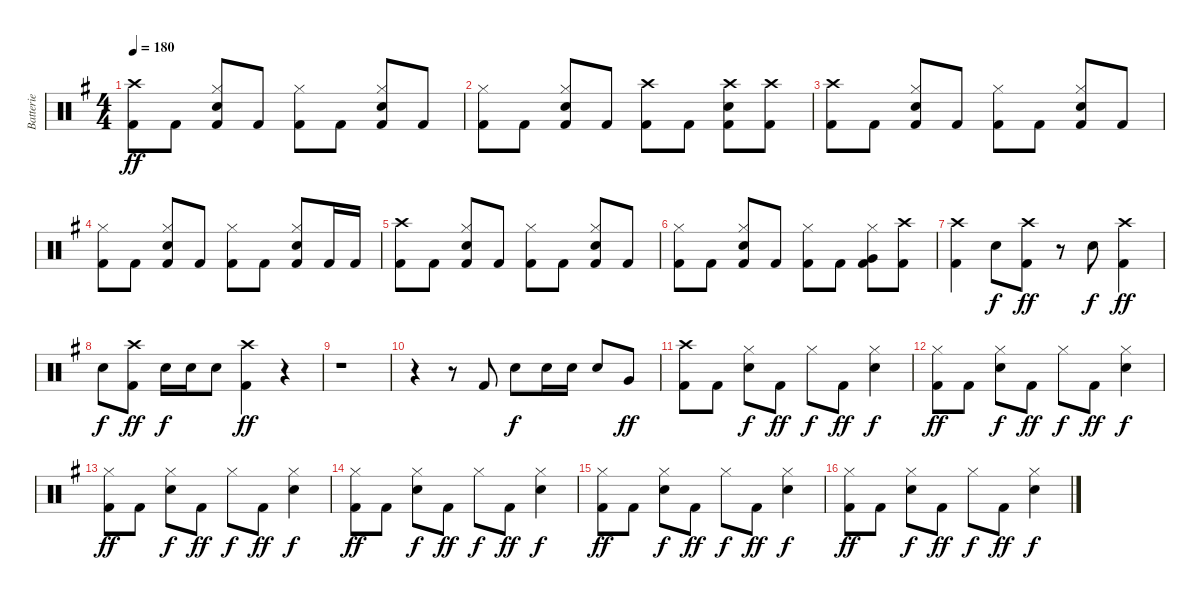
\track ("Batterie" "Batterie") {instrument percussion}
\staff {score}
\articulation defaults
\ts (4 4)
\tempo 180
\clef neutral
\ks g
("Crash high (hit)" "Kick (hit) 2").8{dy ff} "Kick (hit) 2".8 ("Hi-Hat (closed)" "Snare (hit) 2" "Kick (hit) 2").8 "Kick (hit) 2".8 ("Hi-Hat (closed)" "Kick (hit) 2").8 "Kick (hit) 2".8 ("Hi-Hat (closed)" "Snare (hit) 2" "Kick (hit) 2").8 "Kick (hit) 2".8 |
("Hi-Hat (closed)" "Kick (hit) 2").8 "Kick (hit) 2".8 ("Hi-Hat (closed)" "Snare (hit) 2" "Kick (hit) 2").8 "Kick (hit) 2".8 ("Crash high (hit)" "Kick (hit) 2").8 "Kick (hit) 2".8 ("Crash high (hit)" "Snare (hit) 2" "Kick (hit) 2").8 ("Crash high (hit)" "Kick (hit) 2").8 |
("Crash high (hit)" "Kick (hit) 2").8 "Kick (hit) 2".8 ("Hi-Hat (closed)" "Snare (hit) 2" "Kick (hit) 2").8 "Kick (hit) 2".8 ("Hi-Hat (closed)" "Kick (hit) 2").8 "Kick (hit) 2".8 ("Hi-Hat (closed)" "Snare (hit) 2" "Kick (hit) 2").8 "Kick (hit) 2".8 |
("Hi-Hat (closed)" "Kick (hit) 2").8 "Kick (hit) 2".8 ("Hi-Hat (closed)" "Snare (hit) 2" "Kick (hit) 2").8 "Kick (hit) 2".8 ("Hi-Hat (closed)" "Kick (hit) 2").8 "Kick (hit) 2".8 ("Hi-Hat (closed)" "Snare (hit) 2" "Kick (hit) 2").8 "Kick (hit) 2".16 "Kick (hit) 2".16 |
("Crash high (hit)" "Kick (hit) 2").8 "Kick (hit) 2".8 ("Hi-Hat (closed)" "Snare (hit) 2" "Kick (hit) 2").8 "Kick (hit) 2".8 ("Hi-Hat (closed)" "Kick (hit) 2").8 "Kick (hit) 2".8 ("Hi-Hat (closed)" "Snare (hit) 2" "Kick (hit) 2").8 "Kick (hit) 2".8 |
("Hi-Hat (closed)" "Kick (hit) 2").8 "Kick (hit) 2".8 ("Hi-Hat (closed)" "Snare (hit) 2" "Kick (hit) 2").8 "Kick (hit) 2".8 ("Hi-Hat (closed)" "Kick (hit) 2").8 "Kick (hit) 2".8 ("Hi-Hat (closed)" "Very Low Tom (hit)" "Kick (hit) 2").8 ("Crash high (hit)" "Kick (hit) 2").8 |
("Crash high (hit)" "Kick (hit) 2").4 "Snare (hit) 2".8{dy f} ("Crash high (hit)" "Kick (hit) 2").8{dy ff} r.8 "Snare (hit) 2".8{dy f} ("Crash high (hit)" "Kick (hit) 2").4{dy ff} |
"Snare (hit) 2".8{dy f} ("Crash high (hit)" "Kick (hit) 2").8{dy ff} "Snare (hit) 2".16{dy f} "Snare (hit) 2".16 "Snare (hit) 2".8 ("Crash high (hit)" "Kick (hit) 2").4{dy ff} r.4 |
r.1 |
r.4 r.8 "Kick (hit) 2".8 "Snare (hit) 2".8{dy f} "Snare (hit) 2".16 "Snare (hit) 2".16 "Snare (hit) 2".8 "Very Low Tom (hit)".8{dy ff} |
("Crash high (hit)" "Kick (hit) 2").8 "Kick (hit) 2".8 ("Hi-Hat (closed)" "Snare (hit) 2").8{dy f} "Kick (hit) 2".8{dy ff} "Hi-Hat (closed)".8{dy f} "Kick (hit) 2".8{dy ff} ("Hi-Hat (closed)" "Snare (hit) 2").4{dy f} |
("Hi-Hat (closed)" "Kick (hit) 2").8{dy ff} "Kick (hit) 2".8 ("Hi-Hat (closed)" "Snare (hit) 2").8{dy f} "Kick (hit) 2".8{dy ff} "Hi-Hat (closed)".8{dy f} "Kick (hit) 2".8{dy ff} ("Hi-Hat (closed)" "Snare (hit) 2").4{dy f} |
("Hi-Hat (closed)" "Kick (hit) 2").8{dy ff} "Kick (hit) 2".8 ("Hi-Hat (closed)" "Snare (hit) 2").8{dy f} "Kick (hit) 2".8{dy ff} "Hi-Hat (closed)".8{dy f} "Kick (hit) 2".8{dy ff} ("Hi-Hat (closed)" "Snare (hit) 2").4{dy f} |
("Hi-Hat (closed)" "Kick (hit) 2").8{dy ff} "Kick (hit) 2".8 ("Hi-Hat (closed)" "Snare (hit) 2").8{dy f} "Kick (hit) 2".8{dy ff} "Hi-Hat (closed)".8{dy f} "Kick (hit) 2".8{dy ff} ("Hi-Hat (closed)" "Snare (hit) 2").4{dy f} |
("Hi-Hat (closed)" "Kick (hit) 2").8{dy ff} "Kick (hit) 2".8 ("Hi-Hat (closed)" "Snare (hit) 2").8{dy f} "Kick (hit) 2".8{dy ff} "Hi-Hat (closed)".8{dy f} "Kick (hit) 2".8{dy ff} ("Hi-Hat (closed)" "Snare (hit) 2").4{dy f} |
("Hi-Hat (closed)" "Kick (hit) 2").8{dy ff} "Kick (hit) 2".8 ("Hi-Hat (closed)" "Snare (hit) 2").8{dy f} "Kick (hit) 2".8{dy ff} "Hi-Hat (closed)".8{dy f} "Kick (hit) 2".8{dy ff} ("Hi-Hat (closed)" "Snare (hit) 2").4{dy f}
